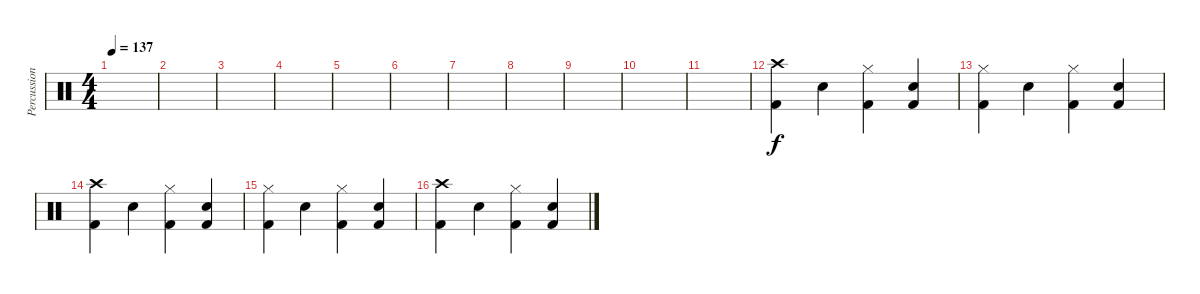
\track ("Percussion" "Percussion") {instrument percussion}
\staff {score}
\articulation defaults
\ts (4 4)
\tempo 137
\clef neutral
\ks c
|
|
|
|
|
|
|
|
|
|
|
("Crash high (hit)" "Kick (hit) 2").4 "Snare (hit) 2".4 ("Hi-Hat (closed)" "Kick (hit) 2").4 ("Snare (hit) 2" "Kick (hit) 2").4 |
("Hi-Hat (closed)" "Kick (hit) 2").4 "Snare (hit) 2".4 ("Hi-Hat (closed)" "Kick (hit) 2").4 ("Snare (hit) 2" "Kick (hit) 2").4 |
("Crash high (hit)" "Kick (hit) 2").4 "Snare (hit) 2".4 ("Hi-Hat (closed)" "Kick (hit) 2").4 ("Snare (hit) 2" "Kick (hit) 2").4 |
("Hi-Hat (closed)" "Kick (hit) 2").4 "Snare (hit) 2".4 ("Hi-Hat (closed)" "Kick (hit) 2").4 ("Snare (hit) 2" "Kick (hit) 2").4 |
("Crash high (hit)" "Kick (hit) 2").4 "Snare (hit) 2".4 ("Hi-Hat (closed)" "Kick (hit) 2").4 ("Snare (hit) 2" "Kick (hit) 2").4
